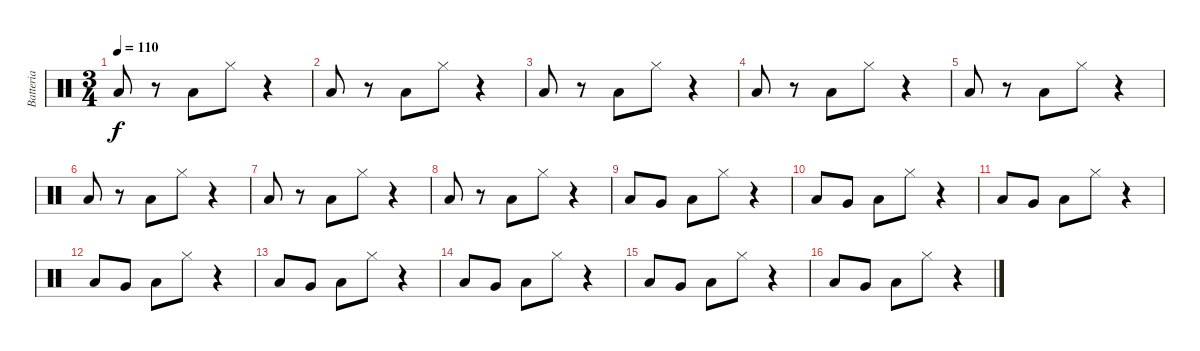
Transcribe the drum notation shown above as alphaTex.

\track ("Batteria" "Batteria") {instrument percussion}
\staff {score}
\articulation defaults
\ts (3 4)
\tempo 110
\clef neutral
\ks c "Low Tom (hit)".8{dy f}
r.8 "Low Tom (hit)".8 "Hi-Hat (closed)".8 r.4 |
"Low Tom (hit)".8 r.8 "Low Tom (hit)".8 "Hi-Hat (closed)".8 r.4 |
"Low Tom (hit)".8 r.8 "Low Tom (hit)".8 "Hi-Hat (closed)".8 r.4 |
"Low Tom (hit)".8 r.8 "Low Tom (hit)".8 "Hi-Hat (closed)".8 r.4 |
"Low Tom (hit)".8 r.8 "Low Tom (hit)".8 "Hi-Hat (closed)".8 r.4 |
"Low Tom (hit)".8 r.8 "Low Tom (hit)".8 "Hi-Hat (closed)".8 r.4 |
"Low Tom (hit)".8 r.8 "Low Tom (hit)".8 "Hi-Hat (closed)".8 r.4 |
"Low Tom (hit)".8 r.8 "Low Tom (hit)".8 "Hi-Hat (closed)".8 r.4 |
"Low Tom (hit)".8 "Very Low Tom (hit)".8 "Low Tom (hit)".8 "Hi-Hat (closed)".8 r.4 |
"Low Tom (hit)".8 "Very Low Tom (hit)".8 "Low Tom (hit)".8 "Hi-Hat (closed)".8 r.4 |
"Low Tom (hit)".8 "Very Low Tom (hit)".8 "Low Tom (hit)".8 "Hi-Hat (closed)".8 r.4 |
"Low Tom (hit)".8 "Very Low Tom (hit)".8 "Low Tom (hit)".8 "Hi-Hat (closed)".8 r.4 |
"Low Tom (hit)".8 "Very Low Tom (hit)".8 "Low Tom (hit)".8 "Hi-Hat (closed)".8 r.4 |
"Low Tom (hit)".8 "Very Low Tom (hit)".8 "Low Tom (hit)".8 "Hi-Hat (closed)".8 r.4 |
"Low Tom (hit)".8 "Very Low Tom (hit)".8 "Low Tom (hit)".8 "Hi-Hat (closed)".8 r.4 |
"Low Tom (hit)".8 "Very Low Tom (hit)".8 "Low Tom (hit)".8 "Hi-Hat (closed)".8 r.4
